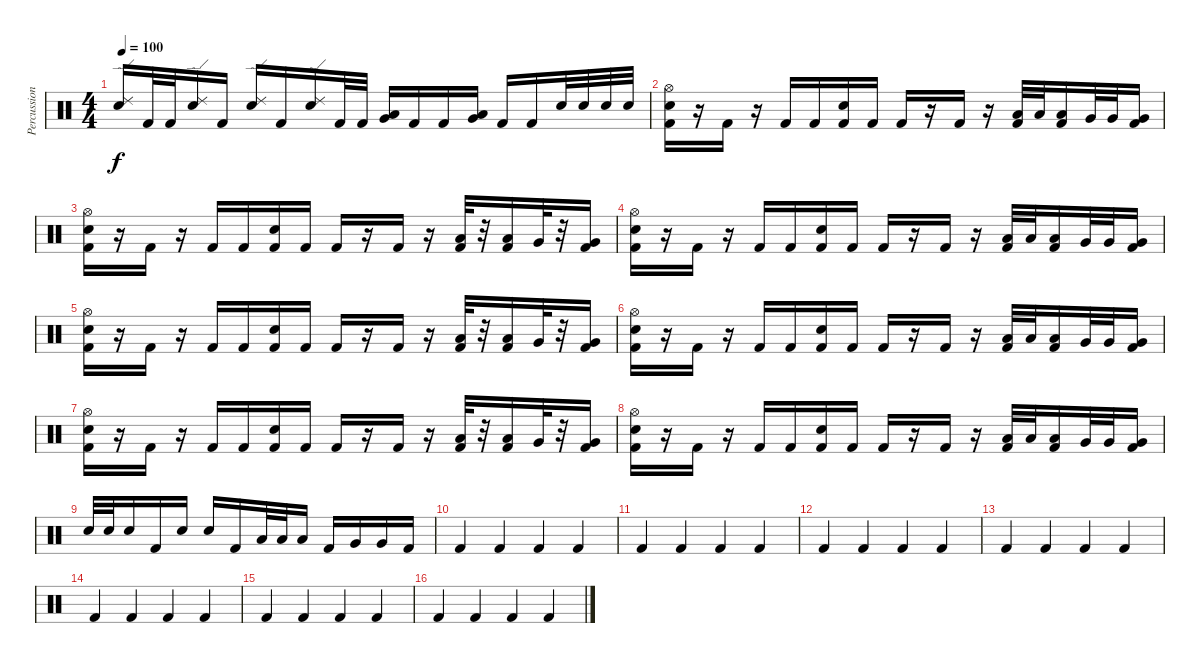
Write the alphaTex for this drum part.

\track ("Percussion" "Percussion") {instrument percussion}
\staff {score}
\articulation defaults
\ts (4 4)
\tempo 100
\clef neutral
\ks c
("Ride (edge) 2" "Snare (hit) 2").16{dy f} "Kick (hit) 2".32 "Kick (hit) 2".32 ("Ride (edge) 2" "Snare (hit) 2").16 "Kick (hit) 2".16 ("Ride (edge) 2" "Snare (hit) 2").16 "Kick (hit) 2".16 ("Ride (edge) 2" "Snare (hit) 2").16 "Kick (hit) 2".32 "Kick (hit) 2".32 ("Low Tom (hit)" "Very Low Tom (hit)").16 "Kick (hit) 2".16 "Kick (hit) 2".16 ("Very Low Tom (hit)" "Low Floor Tom (hit)").16 "Kick (hit) 2".16 "Kick (hit) 2".16 "Snare (hit) 2".32 "Snare (hit) 2".32 "Snare (hit) 2".32 "Snare (hit) 2".32 |
("Hi-Hat (open)" "Snare (hit) 2" "Kick (hit) 2").16 r.16 "Kick (hit) 2".16 r.16 "Kick (hit) 2".16 "Kick (hit) 2".16 ("Snare (hit) 2" "Kick (hit) 2").16 "Kick (hit) 2".16 "Kick (hit) 2".16 r.16 "Kick (hit) 2".16 r.16 ("Low Tom (hit)" "Kick (hit) 2").32 "Low Tom (hit)".32 ("Low Tom (hit)" "Kick (hit) 2").16 "Very Low Tom (hit)".32 "Very Low Tom (hit)".32 ("Very Low Tom (hit)" "Kick (hit) 2").16 |
("Hi-Hat (open)" "Snare (hit) 2" "Kick (hit) 2").16 r.16 "Kick (hit) 2".16 r.16 "Kick (hit) 2".16 "Kick (hit) 2".16 ("Snare (hit) 2" "Kick (hit) 2").16 "Kick (hit) 2".16 "Kick (hit) 2".16 r.16 "Kick (hit) 2".16 r.16 ("Low Tom (hit)" "Kick (hit) 2").32 r.32 ("Low Tom (hit)" "Kick (hit) 2").16 "Very Low Tom (hit)".32 r.32 ("Very Low Tom (hit)" "Kick (hit) 2").16 |
("Hi-Hat (open)" "Snare (hit) 2" "Kick (hit) 2").16 r.16 "Kick (hit) 2".16 r.16 "Kick (hit) 2".16 "Kick (hit) 2".16 ("Snare (hit) 2" "Kick (hit) 2").16 "Kick (hit) 2".16 "Kick (hit) 2".16 r.16 "Kick (hit) 2".16 r.16 ("Low Tom (hit)" "Kick (hit) 2").32 "Low Tom (hit)".32 ("Low Tom (hit)" "Kick (hit) 2").16 "Very Low Tom (hit)".32 "Very Low Tom (hit)".32 ("Very Low Tom (hit)" "Kick (hit) 2").16 |
("Hi-Hat (open)" "Snare (hit) 2" "Kick (hit) 2").16 r.16 "Kick (hit) 2".16 r.16 "Kick (hit) 2".16 "Kick (hit) 2".16 ("Snare (hit) 2" "Kick (hit) 2").16 "Kick (hit) 2".16 "Kick (hit) 2".16 r.16 "Kick (hit) 2".16 r.16 ("Low Tom (hit)" "Kick (hit) 2").32 r.32 ("Low Tom (hit)" "Kick (hit) 2").16 "Very Low Tom (hit)".32 r.32 ("Very Low Tom (hit)" "Kick (hit) 2").16 |
("Hi-Hat (open)" "Snare (hit) 2" "Kick (hit) 2").16 r.16 "Kick (hit) 2".16 r.16 "Kick (hit) 2".16 "Kick (hit) 2".16 ("Snare (hit) 2" "Kick (hit) 2").16 "Kick (hit) 2".16 "Kick (hit) 2".16 r.16 "Kick (hit) 2".16 r.16 ("Low Tom (hit)" "Kick (hit) 2").32 "Low Tom (hit)".32 ("Low Tom (hit)" "Kick (hit) 2").16 "Very Low Tom (hit)".32 "Very Low Tom (hit)".32 ("Very Low Tom (hit)" "Kick (hit) 2").16 |
("Hi-Hat (open)" "Snare (hit) 2" "Kick (hit) 2").16 r.16 "Kick (hit) 2".16 r.16 "Kick (hit) 2".16 "Kick (hit) 2".16 ("Snare (hit) 2" "Kick (hit) 2").16 "Kick (hit) 2".16 "Kick (hit) 2".16 r.16 "Kick (hit) 2".16 r.16 ("Low Tom (hit)" "Kick (hit) 2").32 r.32 ("Low Tom (hit)" "Kick (hit) 2").16 "Very Low Tom (hit)".32 r.32 ("Very Low Tom (hit)" "Kick (hit) 2").16 |
("Hi-Hat (open)" "Snare (hit) 2" "Kick (hit) 2").16 r.16 "Kick (hit) 2".16 r.16 "Kick (hit) 2".16 "Kick (hit) 2".16 ("Snare (hit) 2" "Kick (hit) 2").16 "Kick (hit) 2".16 "Kick (hit) 2".16 r.16 "Kick (hit) 2".16 r.16 ("Low Tom (hit)" "Kick (hit) 2").32 "Low Tom (hit)".32 ("Low Tom (hit)" "Kick (hit) 2").16 "Very Low Tom (hit)".32 "Very Low Tom (hit)".32 ("Very Low Tom (hit)" "Kick (hit) 2").16 |
"Snare (hit) 2".32 "Snare (hit) 2".32 "Snare (hit) 2".16 "Kick (hit) 2".16 "Snare (hit) 2".16 "Snare (hit) 2".16 "Kick (hit) 2".16 "Low Tom (hit)".32 "Low Tom (hit)".32 "Low Tom (hit)".16 "Kick (hit) 2".16 "Very Low Tom (hit)".16 "Very Low Tom (hit)".16 "Kick (hit) 2".16 |
"Kick (hit) 2".4 "Kick (hit) 2".4 "Kick (hit) 2".4 "Kick (hit) 2".4 |
"Kick (hit) 2".4 "Kick (hit) 2".4 "Kick (hit) 2".4 "Kick (hit) 2".4 |
"Kick (hit) 2".4 "Kick (hit) 2".4 "Kick (hit) 2".4 "Kick (hit) 2".4 |
"Kick (hit) 2".4 "Kick (hit) 2".4 "Kick (hit) 2".4 "Kick (hit) 2".4 |
"Kick (hit) 2".4 "Kick (hit) 2".4 "Kick (hit) 2".4 "Kick (hit) 2".4 |
"Kick (hit) 2".4 "Kick (hit) 2".4 "Kick (hit) 2".4 "Kick (hit) 2".4 |
"Kick (hit) 2".4 "Kick (hit) 2".4 "Kick (hit) 2".4 "Kick (hit) 2".4
